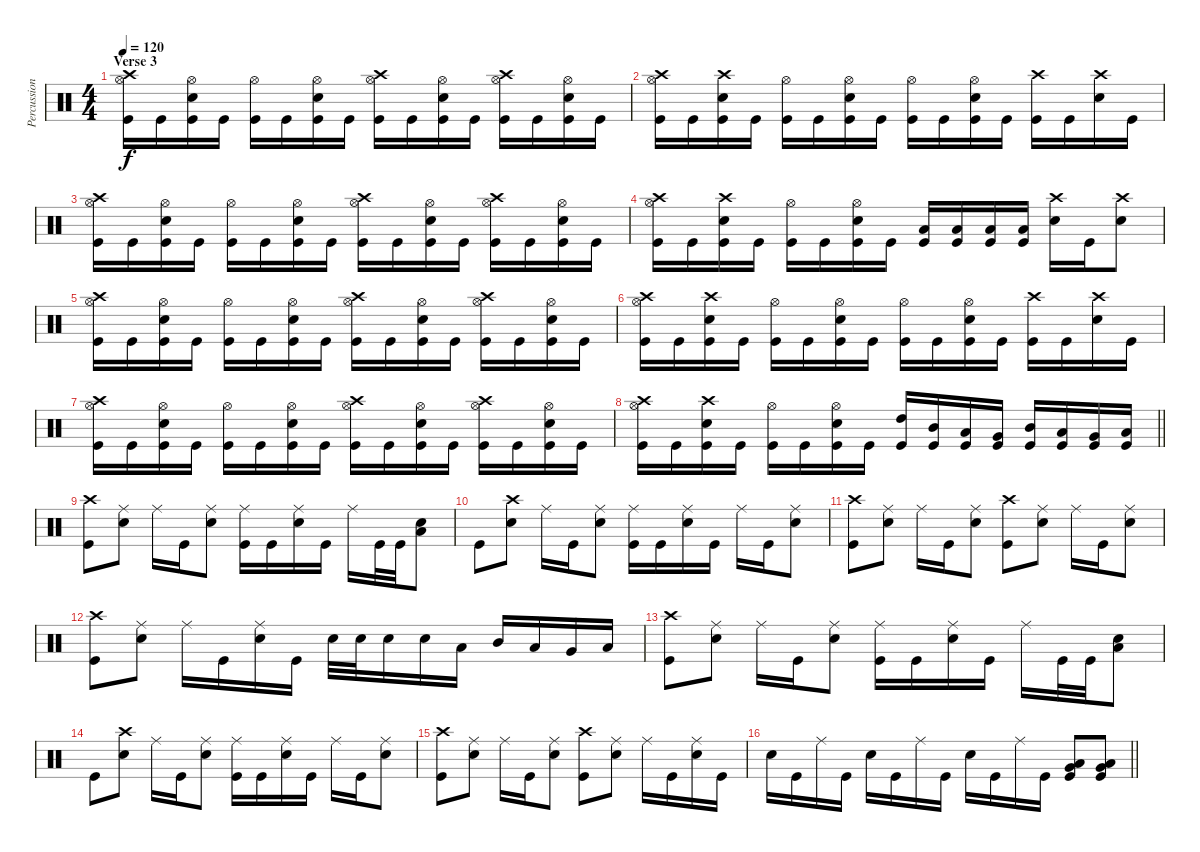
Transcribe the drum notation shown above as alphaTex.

\track ("Percussion" "Percussion") {instrument percussion}
\staff {score}
\articulation defaults
\ts (4 4)
\section ("" "Verse 3")
\tempo 120
\clef neutral
\ks c
("Crash high (hit)" "Hi-Hat (open)" "Kick (hit)").16{dy f} "Kick (hit)".16 ("Hi-Hat (open)" "Snare (hit) 2" "Kick (hit)").16 "Kick (hit)".16 ("Hi-Hat (open)" "Kick (hit)").16 "Kick (hit)".16 ("Hi-Hat (open)" "Snare (hit) 2" "Kick (hit)").16 "Kick (hit)".16 ("Crash high (hit)" "Hi-Hat (open)" "Kick (hit)").16 "Kick (hit)".16 ("Hi-Hat (open)" "Snare (hit) 2" "Kick (hit)").16 "Kick (hit)".16 ("Crash high (hit)" "Hi-Hat (open)" "Kick (hit)").16 "Kick (hit)".16 ("Hi-Hat (open)" "Snare (hit) 2" "Kick (hit)").16 "Kick (hit)".16 |
("Crash high (hit)" "Hi-Hat (open)" "Kick (hit)").16 "Kick (hit)".16 ("Crash high (hit)" "Snare (hit) 2" "Kick (hit)").16 "Kick (hit)".16 ("Hi-Hat (open)" "Kick (hit)").16 "Kick (hit)".16 ("Hi-Hat (open)" "Snare (hit) 2" "Kick (hit)").16 "Kick (hit)".16 ("Hi-Hat (open)" "Kick (hit)").16 "Kick (hit)".16 ("Hi-Hat (open)" "Snare (hit) 2" "Kick (hit)").16 "Kick (hit)".16 ("Crash high (hit)" "Kick (hit)").16 "Kick (hit)".16 ("Crash high (hit)" "Snare (hit) 2").16 "Kick (hit)".16 |
("Crash high (hit)" "Hi-Hat (open)" "Kick (hit)").16 "Kick (hit)".16 ("Hi-Hat (open)" "Snare (hit) 2" "Kick (hit)").16 "Kick (hit)".16 ("Hi-Hat (open)" "Kick (hit)").16 "Kick (hit)".16 ("Hi-Hat (open)" "Snare (hit) 2" "Kick (hit)").16 "Kick (hit)".16 ("Crash high (hit)" "Hi-Hat (open)" "Kick (hit)").16 "Kick (hit)".16 ("Hi-Hat (open)" "Snare (hit) 2" "Kick (hit)").16 "Kick (hit)".16 ("Crash high (hit)" "Hi-Hat (open)" "Kick (hit)").16 "Kick (hit)".16 ("Hi-Hat (open)" "Snare (hit) 2" "Kick (hit)").16 "Kick (hit)".16 |
("Crash high (hit)" "Hi-Hat (open)" "Kick (hit)").16 "Kick (hit)".16 ("Crash high (hit)" "Snare (hit) 2" "Kick (hit)").16 "Kick (hit)".16 ("Hi-Hat (open)" "Kick (hit)").16 "Kick (hit)".16 ("Hi-Hat (open)" "Snare (hit) 2" "Kick (hit)").16 "Kick (hit)".16 ("Low Floor Tom (hit)" "Kick (hit)").16 ("Low Floor Tom (hit)" "Kick (hit)").16 ("Low Floor Tom (hit)" "Kick (hit)").16 ("Low Floor Tom (hit)" "Kick (hit)").16 ("Crash high (hit)" "Snare (hit) 2").16 "Kick (hit)".16 ("Crash high (hit)" "Snare (hit) 2").8 |
("Crash high (hit)" "Hi-Hat (open)" "Kick (hit)").16 "Kick (hit)".16 ("Hi-Hat (open)" "Snare (hit) 2" "Kick (hit)").16 "Kick (hit)".16 ("Hi-Hat (open)" "Kick (hit)").16 "Kick (hit)".16 ("Hi-Hat (open)" "Snare (hit) 2" "Kick (hit)").16 "Kick (hit)".16 ("Crash high (hit)" "Hi-Hat (open)" "Kick (hit)").16 "Kick (hit)".16 ("Hi-Hat (open)" "Snare (hit) 2" "Kick (hit)").16 "Kick (hit)".16 ("Crash high (hit)" "Hi-Hat (open)" "Kick (hit)").16 "Kick (hit)".16 ("Hi-Hat (open)" "Snare (hit) 2" "Kick (hit)").16 "Kick (hit)".16 |
("Crash high (hit)" "Hi-Hat (open)" "Kick (hit)").16 "Kick (hit)".16 ("Crash high (hit)" "Snare (hit) 2" "Kick (hit)").16 "Kick (hit)".16 ("Hi-Hat (open)" "Kick (hit)").16 "Kick (hit)".16 ("Hi-Hat (open)" "Snare (hit) 2" "Kick (hit)").16 "Kick (hit)".16 ("Hi-Hat (open)" "Kick (hit)").16 "Kick (hit)".16 ("Hi-Hat (open)" "Snare (hit) 2" "Kick (hit)").16 "Kick (hit)".16 ("Crash high (hit)" "Kick (hit)").16 "Kick (hit)".16 ("Crash high (hit)" "Snare (hit) 2").16 "Kick (hit)".16 |
("Crash high (hit)" "Hi-Hat (open)" "Kick (hit)").16 "Kick (hit)".16 ("Hi-Hat (open)" "Snare (hit) 2" "Kick (hit)").16 "Kick (hit)".16 ("Hi-Hat (open)" "Kick (hit)").16 "Kick (hit)".16 ("Hi-Hat (open)" "Snare (hit) 2" "Kick (hit)").16 "Kick (hit)".16 ("Crash high (hit)" "Hi-Hat (open)" "Kick (hit)").16 "Kick (hit)".16 ("Hi-Hat (open)" "Snare (hit) 2" "Kick (hit)").16 "Kick (hit)".16 ("Crash high (hit)" "Hi-Hat (open)" "Kick (hit)").16 "Kick (hit)".16 ("Hi-Hat (open)" "Snare (hit) 2" "Kick (hit)").16 "Kick (hit)".16 |
\barLineRight lightlight
("Crash high (hit)" "Hi-Hat (open)" "Kick (hit)").16 "Kick (hit)".16 ("Crash high (hit)" "Snare (hit) 2" "Kick (hit)").16 "Kick (hit)".16 ("Hi-Hat (open)" "Kick (hit)").16 "Kick (hit)".16 ("Hi-Hat (open)" "Snare (hit) 2" "Kick (hit)").16 "Kick (hit)".16 ("High Tom (hit)" "Kick (hit)").16 ("Mid Tom (hit)" "Kick (hit)").16 ("Low Tom (hit)" "Kick (hit)").16 ("Very Low Tom (hit)" "Kick (hit)").16 ("Mid Tom (hit)" "Kick (hit)").16 ("Low Tom (hit)" "Kick (hit)").16 ("Very Low Tom (hit)" "Kick (hit)").16 ("Low Floor Tom (hit)" "Kick (hit)").16 |
("Crash high (hit)" "Kick (hit)").8 ("Ride (middle)" "Snare (hit) 2").8 "Ride (middle)".16 "Kick (hit)".16 ("Ride (middle)" "Snare (hit) 2").8 ("Ride (middle)" "Kick (hit)").16 "Kick (hit)".16 ("Ride (middle)" "Snare (hit) 2").16 "Kick (hit)".16 "Ride (middle)".16 "Kick (hit)".32 "Kick (hit)".32 ("Snare (hit) 2" "Low Floor Tom (hit)").8 |
"Kick (hit)".8 ("Crash high (hit)" "Snare (hit) 2").8 "Ride (middle)".16 "Kick (hit)".16 ("Ride (middle)" "Snare (hit) 2").8 ("Ride (middle)" "Kick (hit)").16 "Kick (hit)".16 ("Ride (middle)" "Snare (hit) 2").16 "Kick (hit)".16 "Ride (middle)".16 "Kick (hit)".16 ("Ride (middle)" "Snare (hit) 2").8 |
("Crash high (hit)" "Kick (hit)").8 ("Ride (middle)" "Snare (hit) 2").8 "Ride (middle)".16 "Kick (hit)".16 ("Ride (middle)" "Snare (hit) 2").8 ("Crash high (hit)" "Kick (hit)").8 ("Ride (middle)" "Snare (hit) 2").8 "Ride (middle)".16 "Kick (hit)".16 ("Ride (middle)" "Snare (hit) 2").8 |
("Crash high (hit)" "Kick (hit)").8 ("Ride (middle)" "Snare (hit) 2").8 "Ride (middle)".16 "Kick (hit)".16 ("Ride (middle)" "Snare (hit) 2").16 "Kick (hit)".16 "Snare (hit) 2".32 "Snare (hit) 2".32 "Snare (hit) 2".16 "Snare (hit) 2".16 "Low Tom (hit)".16 "Mid Tom (hit)".16 "Low Tom (hit)".16 "Very Low Tom (hit)".16 "Low Floor Tom (hit)".16 |
("Crash high (hit)" "Kick (hit)").8 ("Ride (middle)" "Snare (hit) 2").8 "Ride (middle)".16 "Kick (hit)".16 ("Ride (middle)" "Snare (hit) 2").8 ("Ride (middle)" "Kick (hit)").16 "Kick (hit)".16 ("Ride (middle)" "Snare (hit) 2").16 "Kick (hit)".16 "Ride (middle)".16 "Kick (hit)".32 "Kick (hit)".32 ("Snare (hit) 2" "Low Floor Tom (hit)").8 |
"Kick (hit)".8 ("Crash high (hit)" "Snare (hit) 2").8 "Ride (middle)".16 "Kick (hit)".16 ("Ride (middle)" "Snare (hit) 2").8 ("Ride (middle)" "Kick (hit)").16 "Kick (hit)".16 ("Ride (middle)" "Snare (hit) 2").16 "Kick (hit)".16 "Ride (middle)".16 "Kick (hit)".16 ("Ride (middle)" "Snare (hit) 2").8 |
("Crash high (hit)" "Kick (hit)").8 ("Ride (middle)" "Snare (hit) 2").8 "Ride (middle)".16 "Kick (hit)".16 ("Ride (middle)" "Snare (hit) 2").8 ("Crash high (hit)" "Kick (hit)").8 ("Ride (middle)" "Snare (hit) 2").8 "Ride (middle)".16 "Kick (hit)".16 ("Ride (middle)" "Snare (hit) 2").16 "Kick (hit)".16 |
\barLineRight lightlight "Snare (hit) 2".16 "Kick (hit)".16 "Ride (middle)".16 "Kick (hit)".16 "Snare (hit) 2".16 "Kick (hit)".16 "Ride (middle)".16 "Kick (hit)".16 "Snare (hit) 2".16 "Kick (hit)".16 "Ride (middle)".16 "Kick (hit)".16
("Very Low Tom (hit)" "Low Floor Tom (hit)" "Kick (hit)").8 ("Very Low Tom (hit)" "Low Floor Tom (hit)" "Kick (hit)").8
